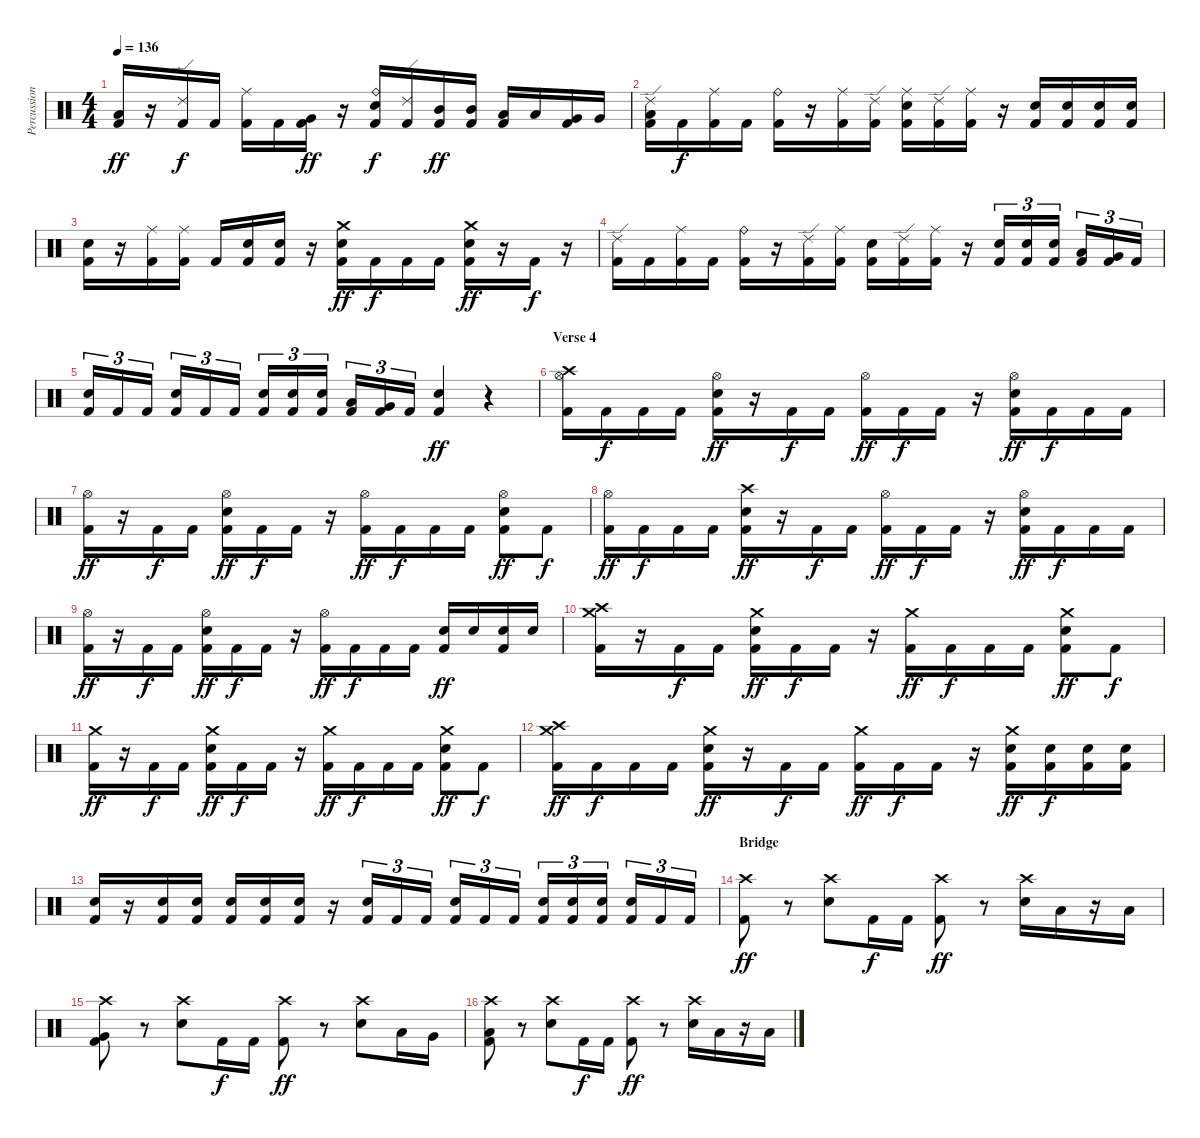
\track ("Percussions" "Percussion") {instrument percussion}
\staff {score}
\articulation defaults
\ts (4 4)
\tempo 136
\clef neutral
\ks c
("Low Floor Tom (hit)" "Kick (hit) 2").16{dy ff} r.16 ("Ride (edge) 2" "Kick (hit) 2").16{dy f} "Kick (hit) 2".16 ("Ride (middle)" "Kick (hit) 2").16 "Kick (hit) 2".16 ("Very Low Tom (hit)" "Kick (hit) 2").16{dy ff} r.16 ("Ride (bell)" "Electric Snare (hit)" "Kick (hit) 2").16{dy f} ("Ride (edge) 2" "Kick (hit) 2").16 ("Mid Tom (hit)" "Kick (hit) 2").16{dy ff} ("Mid Tom (hit)" "Kick (hit) 2").16 ("Low Tom (hit)" "Kick (hit) 2").16 "Low Tom (hit)".16 ("Very Low Tom (hit)" "Kick (hit) 2").16 "Very Low Tom (hit)".16 |
("Ride (edge) 2" "Low Floor Tom (hit)" "Kick (hit) 2").16 "Kick (hit) 2".16{dy f} ("Ride (middle)" "Kick (hit) 2").16 "Kick (hit) 2".16 ("Ride (bell)" "Kick (hit) 2").16 r.16 ("Ride (middle)" "Kick (hit) 2").16 ("Ride (edge) 2" "Kick (hit) 2").16 ("Ride (middle)" "Electric Snare (hit)" "Kick (hit) 2").16 ("Ride (edge) 2" "Kick (hit) 2").16 ("Ride (middle)" "Kick (hit) 2").16 r.16 ("Electric Snare (hit)" "Kick (hit) 2").16 ("Electric Snare (hit)" "Kick (hit) 2").16 ("Electric Snare (hit)" "Kick (hit) 2").16 ("Electric Snare (hit)" "Kick (hit) 2").16 |
("Electric Snare (hit)" "Kick (hit) 2").16 r.16 ("Ride (middle)" "Kick (hit) 2").16 ("Ride (middle)" "Kick (hit) 2").16 "Kick (hit) 2".16 ("Electric Snare (hit)" "Kick (hit) 2").16 ("Electric Snare (hit)" "Kick (hit) 2").16 r.16 ("Crash medium (hit)" "Electric Snare (hit)" "Kick (hit) 2").16{dy ff} "Kick (hit) 2".16{dy f} "Kick (hit) 2".16 "Kick (hit) 2".16 ("Crash medium (hit)" "Electric Snare (hit)" "Kick (hit) 2").16{dy ff} r.16 "Kick (hit) 2".16{dy f} r.16 |
("Ride (edge) 2" "Kick (hit) 2").16 "Kick (hit) 2".16 ("Ride (middle)" "Kick (hit) 2").16 "Kick (hit) 2".16 ("Ride (bell)" "Kick (hit) 2").16 r.16 ("Ride (edge) 2" "Kick (hit) 2").16 ("Ride (middle)" "Kick (hit) 2").16 ("Electric Snare (hit)" "Kick (hit) 2").16 ("Ride (edge) 2" "Kick (hit) 2").16 ("Ride (middle)" "Kick (hit) 2").16 r.16 ("Electric Snare (hit)" "Kick (hit) 2").16{tu (3 2)} ("Electric Snare (hit)" "Kick (hit) 2").16{tu (3 2)} ("Electric Snare (hit)" "Kick (hit) 2").16{tu (3 2)} ("Low Tom (hit)" "Kick (hit) 2").16{tu (3 2)} ("Very Low Tom (hit)" "Kick (hit) 2").16{tu (3 2)} "Kick (hit) 2".16{tu (3 2)} |
("Electric Snare (hit)" "Kick (hit) 2").16{tu (3 2)} "Kick (hit) 2".16{tu (3 2)} "Kick (hit) 2".16{tu (3 2)} ("Electric Snare (hit)" "Kick (hit) 2").16{tu (3 2)} "Kick (hit) 2".16{tu (3 2)} "Kick (hit) 2".16{tu (3 2)} ("Electric Snare (hit)" "Kick (hit) 2").16{tu (3 2)} ("Electric Snare (hit)" "Kick (hit) 2").16{tu (3 2)} ("Electric Snare (hit)" "Kick (hit) 2").16{tu (3 2)} ("Low Tom (hit)" "Kick (hit) 2").16{tu (3 2)} ("Very Low Tom (hit)" "Kick (hit) 2").16{tu (3 2)} "Kick (hit) 2".16{tu (3 2)} ("Electric Snare (hit)" "Kick (hit) 2").4{dy ff} r.4 |
\section ("" "Verse 4")
("Crash high (hit)" "Hi-Hat (open)" "Kick (hit) 2").16 "Kick (hit) 2".16{dy f} "Kick (hit) 2".16 "Kick (hit) 2".16 ("Hi-Hat (open)" "Electric Snare (hit)" "Kick (hit) 2").16{dy ff} r.16 "Kick (hit) 2".16{dy f} "Kick (hit) 2".16 ("Hi-Hat (open)" "Kick (hit) 2").16{dy ff} "Kick (hit) 2".16{dy f} "Kick (hit) 2".16 r.16 ("Hi-Hat (open)" "Electric Snare (hit)" "Kick (hit) 2").16{dy ff} "Kick (hit) 2".16{dy f} "Kick (hit) 2".16 "Kick (hit) 2".16 |
("Hi-Hat (open)" "Kick (hit) 2").16{dy ff} r.16 "Kick (hit) 2".16{dy f} "Kick (hit) 2".16 ("Hi-Hat (open)" "Electric Snare (hit)" "Kick (hit) 2").16{dy ff} "Kick (hit) 2".16{dy f} "Kick (hit) 2".16 r.16 ("Hi-Hat (open)" "Kick (hit) 2").16{dy ff} "Kick (hit) 2".16{dy f} "Kick (hit) 2".16 "Kick (hit) 2".16 ("Hi-Hat (open)" "Electric Snare (hit)" "Kick (hit) 2").8{dy ff} "Kick (hit) 2".8{dy f} |
("Hi-Hat (open)" "Kick (hit) 2").16{dy ff} "Kick (hit) 2".16{dy f} "Kick (hit) 2".16 "Kick (hit) 2".16 ("Crash high (hit)" "Electric Snare (hit)" "Kick (hit) 2").16{dy ff} r.16 "Kick (hit) 2".16{dy f} "Kick (hit) 2".16 ("Hi-Hat (open)" "Kick (hit) 2").16{dy ff} "Kick (hit) 2".16{dy f} "Kick (hit) 2".16 r.16 ("Hi-Hat (open)" "Electric Snare (hit)" "Kick (hit) 2").16{dy ff} "Kick (hit) 2".16{dy f} "Kick (hit) 2".16 "Kick (hit) 2".16 |
("Hi-Hat (open)" "Kick (hit) 2").16{dy ff} r.16 "Kick (hit) 2".16{dy f} "Kick (hit) 2".16 ("Hi-Hat (open)" "Electric Snare (hit)" "Kick (hit) 2").16{dy ff} "Kick (hit) 2".16{dy f} "Kick (hit) 2".16 r.16 ("Hi-Hat (open)" "Kick (hit) 2").16{dy ff} "Kick (hit) 2".16{dy f} "Kick (hit) 2".16 "Kick (hit) 2".16 ("Electric Snare (hit)" "Kick (hit) 2").16{dy ff} "Electric Snare (hit)".16 ("Electric Snare (hit)" "Kick (hit) 2").16 "Electric Snare (hit)".16 |
("Crash high (hit)" "Crash medium (hit)" "Kick (hit) 2").16 r.16 "Kick (hit) 2".16{dy f} "Kick (hit) 2".16 ("Crash medium (hit)" "Electric Snare (hit)" "Kick (hit) 2").16{dy ff} "Kick (hit) 2".16{dy f} "Kick (hit) 2".16 r.16 ("Crash medium (hit)" "Kick (hit) 2").16{dy ff} "Kick (hit) 2".16{dy f} "Kick (hit) 2".16 "Kick (hit) 2".16 ("Crash medium (hit)" "Electric Snare (hit)" "Kick (hit) 2").8{dy ff} "Kick (hit) 2".8{dy f} |
("Crash medium (hit)" "Kick (hit) 2").16{dy ff} r.16 "Kick (hit) 2".16{dy f} "Kick (hit) 2".16 ("Crash medium (hit)" "Electric Snare (hit)" "Kick (hit) 2").16{dy ff} "Kick (hit) 2".16{dy f} "Kick (hit) 2".16 r.16 ("Crash medium (hit)" "Kick (hit) 2").16{dy ff} "Kick (hit) 2".16{dy f} "Kick (hit) 2".16 "Kick (hit) 2".16 ("Crash medium (hit)" "Electric Snare (hit)" "Kick (hit) 2").8{dy ff} "Kick (hit) 2".8{dy f} |
("Crash high (hit)" "Crash medium (hit)" "Kick (hit) 2").16{dy ff} "Kick (hit) 2".16{dy f} "Kick (hit) 2".16 "Kick (hit) 2".16 ("Crash medium (hit)" "Electric Snare (hit)" "Kick (hit) 2").16{dy ff} r.16 "Kick (hit) 2".16{dy f} "Kick (hit) 2".16 ("Crash medium (hit)" "Kick (hit) 2").16{dy ff} "Kick (hit) 2".16{dy f} "Kick (hit) 2".16 r.16 ("Crash medium (hit)" "Electric Snare (hit)" "Kick (hit) 2").16{dy ff} ("Electric Snare (hit)" "Kick (hit) 2").16{dy f} ("Electric Snare (hit)" "Kick (hit) 2").16 ("Electric Snare (hit)" "Kick (hit) 2").16 |
("Electric Snare (hit)" "Kick (hit) 2").16 r.16 ("Electric Snare (hit)" "Kick (hit) 2").16 ("Electric Snare (hit)" "Kick (hit) 2").16 ("Electric Snare (hit)" "Kick (hit) 2").16 ("Electric Snare (hit)" "Kick (hit) 2").16 ("Electric Snare (hit)" "Kick (hit) 2").16 r.16 ("Electric Snare (hit)" "Kick (hit) 2").16{tu (3 2)} "Kick (hit) 2".16{tu (3 2)} "Kick (hit) 2".16{tu (3 2)} ("Electric Snare (hit)" "Kick (hit) 2").16{tu (3 2)} "Kick (hit) 2".16{tu (3 2)} "Kick (hit) 2".16{tu (3 2)} ("Electric Snare (hit)" "Kick (hit) 2").16{tu (3 2)} ("Electric Snare (hit)" "Kick (hit) 2").16{tu (3 2)} ("Electric Snare (hit)" "Kick (hit) 2").16{tu (3 2)} ("Electric Snare (hit)" "Kick (hit) 2").16{tu (3 2)} "Kick (hit) 2".16{tu (3 2)} "Kick (hit) 2".16{tu (3 2)} |
\section ("" "Bridge")
("Crash high (hit)" "Kick (hit) 2").8{dy ff} r.8 ("Crash high (hit)" "Electric Snare (hit)").8 "Kick (hit) 2".16{dy f} "Kick (hit) 2".16 ("Crash high (hit)" "Kick (hit) 2").8{dy ff} r.8 ("Crash high (hit)" "Electric Snare (hit)").16 "Low Tom (hit)".16 r.16 "Low Tom (hit)".16 |
("Crash high (hit)" "Very Low Tom (hit)" "Kick (hit) 2").8 r.8 ("Crash high (hit)" "Electric Snare (hit)").8 "Kick (hit) 2".16{dy f} "Kick (hit) 2".16 ("Crash high (hit)" "Kick (hit) 2").8{dy ff} r.8 ("Crash high (hit)" "Electric Snare (hit)").8 "Low Tom (hit)".16 "Very Low Tom (hit)".16 |
("Crash high (hit)" "Low Floor Tom (hit)" "Kick (hit) 2").8 r.8 ("Crash high (hit)" "Electric Snare (hit)").8 "Kick (hit) 2".16{dy f} "Kick (hit) 2".16 ("Crash high (hit)" "Kick (hit) 2").8{dy ff} r.8 ("Crash high (hit)" "Electric Snare (hit)").16 "Low Tom (hit)".16 r.16 "Low Tom (hit)".16
